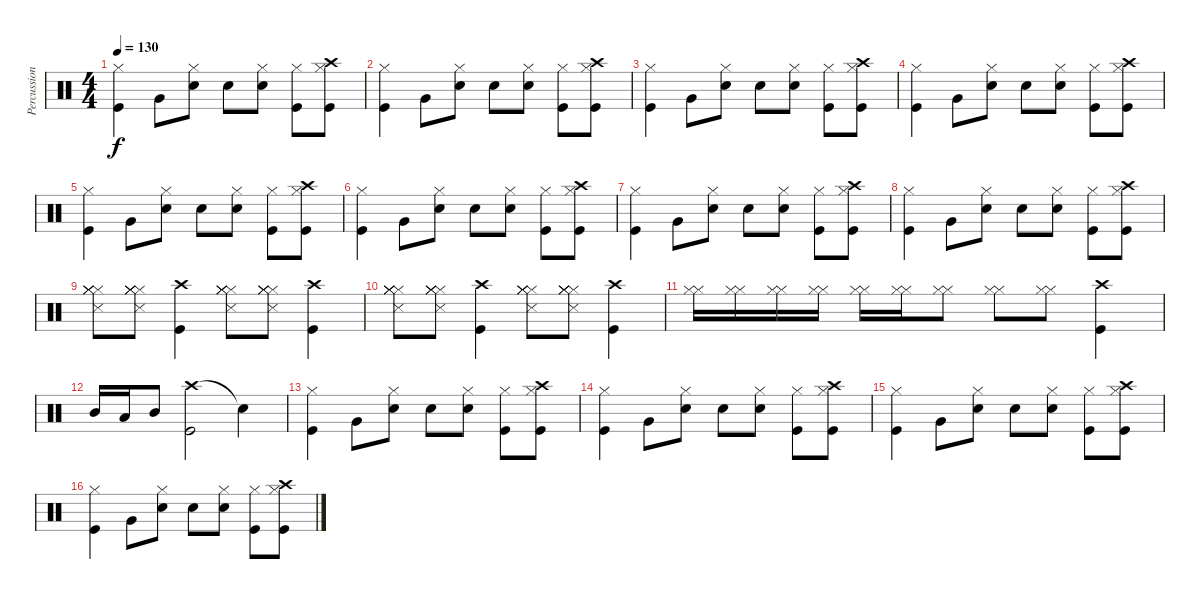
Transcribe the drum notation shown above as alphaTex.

\track ("Percussion" "Percussion") {instrument percussion}
\staff {score}
\articulation defaults
\ts (4 4)
\tempo 130
\clef neutral
\ks c
("Kick (hit)" "Hi-Hat (closed)").4{dy f} "Very Low Tom (hit)".8 ("Snare (hit) 2" "Hi-Hat (closed)").8 "Snare (hit) 2".8 ("Snare (hit) 2" "Hi-Hat (closed)").8 ("Kick (hit)" "Hi-Hat (closed)").8 ("Kick (hit)" "Crash high (hit)" "Hi-Hat (closed)").8 |
("Kick (hit)" "Hi-Hat (closed)").4 "Very Low Tom (hit)".8 ("Snare (hit) 2" "Hi-Hat (closed)").8 "Snare (hit) 2".8 ("Snare (hit) 2" "Hi-Hat (closed)").8 ("Kick (hit)" "Hi-Hat (closed)").8 ("Kick (hit)" "Crash high (hit)" "Hi-Hat (closed)").8 |
("Kick (hit)" "Hi-Hat (closed)").4 "Very Low Tom (hit)".8 ("Snare (hit) 2" "Hi-Hat (closed)").8 "Snare (hit) 2".8 ("Snare (hit) 2" "Hi-Hat (closed)").8 ("Kick (hit)" "Hi-Hat (closed)").8 ("Kick (hit)" "Crash high (hit)" "Hi-Hat (closed)").8 |
("Kick (hit)" "Hi-Hat (closed)").4 "Very Low Tom (hit)".8 ("Snare (hit) 2" "Hi-Hat (closed)").8 "Snare (hit) 2".8 ("Snare (hit) 2" "Hi-Hat (closed)").8 ("Kick (hit)" "Hi-Hat (closed)").8 ("Kick (hit)" "Crash high (hit)" "Hi-Hat (closed)").8 |
("Kick (hit)" "Hi-Hat (closed)").4 "Very Low Tom (hit)".8 ("Snare (hit) 2" "Hi-Hat (closed)").8 "Snare (hit) 2".8 ("Snare (hit) 2" "Hi-Hat (closed)").8 ("Kick (hit)" "Hi-Hat (closed)").8 ("Kick (hit)" "Crash high (hit)" "Hi-Hat (closed)").8 |
("Kick (hit)" "Hi-Hat (closed)").4 "Very Low Tom (hit)".8 ("Snare (hit) 2" "Hi-Hat (closed)").8 "Snare (hit) 2".8 ("Snare (hit) 2" "Hi-Hat (closed)").8 ("Kick (hit)" "Hi-Hat (closed)").8 ("Kick (hit)" "Crash high (hit)" "Hi-Hat (closed)").8 |
("Kick (hit)" "Hi-Hat (closed)").4 "Very Low Tom (hit)".8 ("Snare (hit) 2" "Hi-Hat (closed)").8 "Snare (hit) 2".8 ("Snare (hit) 2" "Hi-Hat (closed)").8 ("Kick (hit)" "Hi-Hat (closed)").8 ("Kick (hit)" "Crash high (hit)" "Hi-Hat (closed)").8 |
("Kick (hit)" "Hi-Hat (closed)").4 "Very Low Tom (hit)".8 ("Snare (hit) 2" "Hi-Hat (closed)").8 "Snare (hit) 2".8 ("Snare (hit) 2" "Hi-Hat (closed)").8 ("Kick (hit)" "Hi-Hat (closed)").8 ("Kick (hit)" "Crash high (hit)" "Hi-Hat (closed)").8 |
("Snare (side stick) 3" "Hi-Hat (closed)" "Hi-Hat (closed)" "Hi-Hat (closed)" "Hi-Hat (closed)").8 ("Snare (side stick) 3" "Hi-Hat (closed)" "Hi-Hat (closed)" "Hi-Hat (closed)" "Hi-Hat (closed)").8 ("Crash high (hit)" "Kick (hit)").4 ("Snare (side stick) 3" "Hi-Hat (closed)" "Hi-Hat (closed)" "Hi-Hat (closed)" "Hi-Hat (closed)").8 ("Snare (side stick) 3" "Hi-Hat (closed)" "Hi-Hat (closed)" "Hi-Hat (closed)" "Hi-Hat (closed)").8 ("Crash high (hit)" "Kick (hit)").4 |
("Snare (side stick) 3" "Hi-Hat (closed)" "Hi-Hat (closed)" "Hi-Hat (closed)" "Hi-Hat (closed)").8 ("Snare (side stick) 3" "Hi-Hat (closed)" "Hi-Hat (closed)" "Hi-Hat (closed)" "Hi-Hat (closed)").8 ("Crash high (hit)" "Kick (hit)").4 ("Snare (side stick) 3" "Hi-Hat (closed)" "Hi-Hat (closed)" "Hi-Hat (closed)" "Hi-Hat (closed)").8 ("Snare (side stick) 3" "Hi-Hat (closed)" "Hi-Hat (closed)" "Hi-Hat (closed)" "Hi-Hat (closed)").8 ("Crash high (hit)" "Kick (hit)").4 |
("Hi-Hat (closed)" "Hi-Hat (closed)").16 ("Hi-Hat (closed)" "Hi-Hat (closed)").16 ("Hi-Hat (closed)" "Hi-Hat (closed)").16 ("Hi-Hat (closed)" "Hi-Hat (closed)").16 ("Hi-Hat (closed)" "Hi-Hat (closed)").16 ("Hi-Hat (closed)" "Hi-Hat (closed)").16 ("Hi-Hat (closed)" "Hi-Hat (closed)").8 ("Hi-Hat (closed)" "Hi-Hat (closed)").8 ("Hi-Hat (closed)" "Hi-Hat (closed)").8 ("Crash high (hit)" "Kick (hit)").4 |
"Mid Tom (hit)".16 "Low Tom (hit)".16 "Mid Tom (hit)".8 ("Crash high (hit)" "Kick (hit)").2 "Snare (hit)"{t}.4 |
("Kick (hit)" "Hi-Hat (closed)").4 "Very Low Tom (hit)".8 ("Snare (hit) 2" "Hi-Hat (closed)").8 "Snare (hit) 2".8 ("Snare (hit) 2" "Hi-Hat (closed)").8 ("Kick (hit)" "Hi-Hat (closed)").8 ("Kick (hit)" "Crash high (hit)" "Hi-Hat (closed)").8 |
("Kick (hit)" "Hi-Hat (closed)").4 "Very Low Tom (hit)".8 ("Snare (hit) 2" "Hi-Hat (closed)").8 "Snare (hit) 2".8 ("Snare (hit) 2" "Hi-Hat (closed)").8 ("Kick (hit)" "Hi-Hat (closed)").8 ("Kick (hit)" "Crash high (hit)" "Hi-Hat (closed)").8 |
("Kick (hit)" "Hi-Hat (closed)").4 "Very Low Tom (hit)".8 ("Snare (hit) 2" "Hi-Hat (closed)").8 "Snare (hit) 2".8 ("Snare (hit) 2" "Hi-Hat (closed)").8 ("Kick (hit)" "Hi-Hat (closed)").8 ("Kick (hit)" "Crash high (hit)" "Hi-Hat (closed)").8 |
("Kick (hit)" "Hi-Hat (closed)").4 "Very Low Tom (hit)".8 ("Snare (hit) 2" "Hi-Hat (closed)").8 "Snare (hit) 2".8 ("Snare (hit) 2" "Hi-Hat (closed)").8 ("Kick (hit)" "Hi-Hat (closed)").8 ("Kick (hit)" "Crash high (hit)" "Hi-Hat (closed)").8
